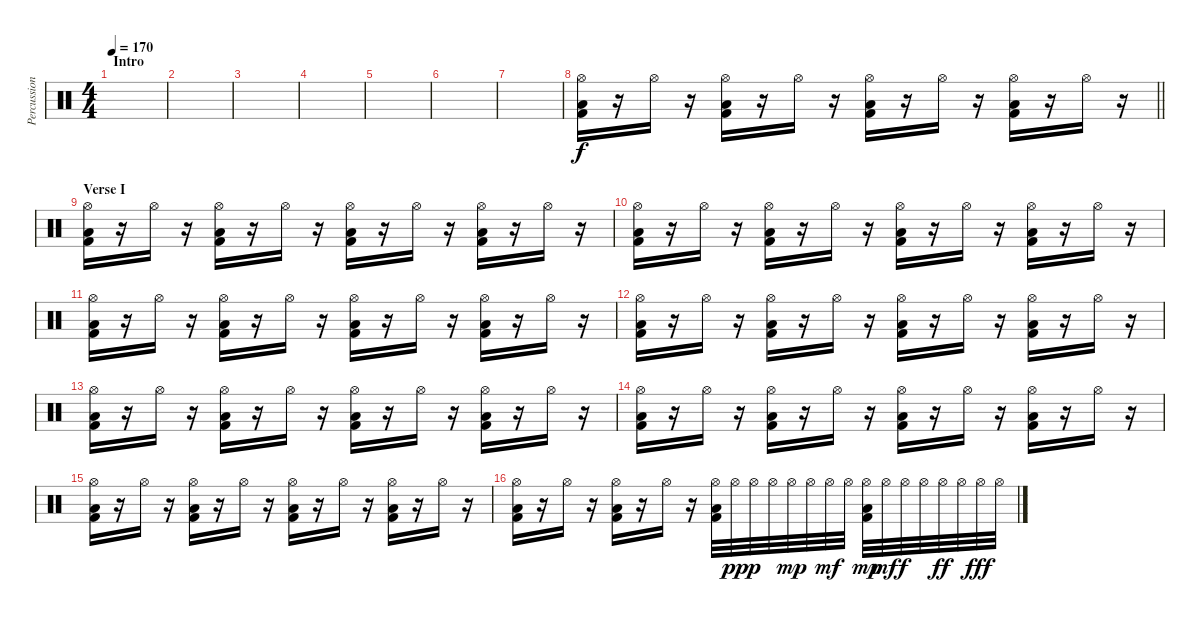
\track ("Percussion" "Percussion") {instrument percussion}
\staff {score}
\articulation defaults
\ts (4 4)
\section ("" "Intro")
\tempo 170
\clef neutral
\ks c
|
|
|
|
|
|
|
\barLineRight lightlight
("Hi-Hat (open)" "Low Floor Tom (hit)" "Kick (hit) 2").16 r.16 "Hi-Hat (open)".16 r.16 ("Hi-Hat (open)" "Low Floor Tom (hit)" "Kick (hit) 2").16 r.16 "Hi-Hat (open)".16 r.16 ("Hi-Hat (open)" "Low Floor Tom (hit)" "Kick (hit) 2").16 r.16 "Hi-Hat (open)".16 r.16 ("Hi-Hat (open)" "Low Floor Tom (hit)" "Kick (hit) 2").16 r.16 "Hi-Hat (open)".16 r.16 |
\section ("" "Verse I")
("Hi-Hat (open)" "Low Floor Tom (hit)" "Kick (hit) 2").16 r.16 "Hi-Hat (open)".16 r.16 ("Hi-Hat (open)" "Low Floor Tom (hit)" "Kick (hit) 2").16 r.16 "Hi-Hat (open)".16 r.16 ("Hi-Hat (open)" "Low Floor Tom (hit)" "Kick (hit) 2").16 r.16 "Hi-Hat (open)".16 r.16 ("Hi-Hat (open)" "Low Floor Tom (hit)" "Kick (hit) 2").16 r.16 "Hi-Hat (open)".16 r.16 |
("Hi-Hat (open)" "Low Floor Tom (hit)" "Kick (hit) 2").16 r.16 "Hi-Hat (open)".16 r.16 ("Hi-Hat (open)" "Low Floor Tom (hit)" "Kick (hit) 2").16 r.16 "Hi-Hat (open)".16 r.16 ("Hi-Hat (open)" "Low Floor Tom (hit)" "Kick (hit) 2").16 r.16 "Hi-Hat (open)".16 r.16 ("Hi-Hat (open)" "Low Floor Tom (hit)" "Kick (hit) 2").16 r.16 "Hi-Hat (open)".16 r.16 |
("Hi-Hat (open)" "Low Floor Tom (hit)" "Kick (hit) 2").16 r.16 "Hi-Hat (open)".16 r.16 ("Hi-Hat (open)" "Low Floor Tom (hit)" "Kick (hit) 2").16 r.16 "Hi-Hat (open)".16 r.16 ("Hi-Hat (open)" "Low Floor Tom (hit)" "Kick (hit) 2").16 r.16 "Hi-Hat (open)".16 r.16 ("Hi-Hat (open)" "Low Floor Tom (hit)" "Kick (hit) 2").16 r.16 "Hi-Hat (open)".16 r.16 |
("Hi-Hat (open)" "Low Floor Tom (hit)" "Kick (hit) 2").16 r.16 "Hi-Hat (open)".16 r.16 ("Hi-Hat (open)" "Low Floor Tom (hit)" "Kick (hit) 2").16 r.16 "Hi-Hat (open)".16 r.16 ("Hi-Hat (open)" "Low Floor Tom (hit)" "Kick (hit) 2").16 r.16 "Hi-Hat (open)".16 r.16 ("Hi-Hat (open)" "Low Floor Tom (hit)" "Kick (hit) 2").16 r.16 "Hi-Hat (open)".16 r.16 |
("Hi-Hat (open)" "Low Floor Tom (hit)" "Kick (hit) 2").16 r.16 "Hi-Hat (open)".16 r.16 ("Hi-Hat (open)" "Low Floor Tom (hit)" "Kick (hit) 2").16 r.16 "Hi-Hat (open)".16 r.16 ("Hi-Hat (open)" "Low Floor Tom (hit)" "Kick (hit) 2").16 r.16 "Hi-Hat (open)".16 r.16 ("Hi-Hat (open)" "Low Floor Tom (hit)" "Kick (hit) 2").16 r.16 "Hi-Hat (open)".16 r.16 |
("Hi-Hat (open)" "Low Floor Tom (hit)" "Kick (hit) 2").16 r.16 "Hi-Hat (open)".16 r.16 ("Hi-Hat (open)" "Low Floor Tom (hit)" "Kick (hit) 2").16 r.16 "Hi-Hat (open)".16 r.16 ("Hi-Hat (open)" "Low Floor Tom (hit)" "Kick (hit) 2").16 r.16 "Hi-Hat (open)".16 r.16 ("Hi-Hat (open)" "Low Floor Tom (hit)" "Kick (hit) 2").16 r.16 "Hi-Hat (open)".16 r.16 |
("Hi-Hat (open)" "Low Floor Tom (hit)" "Kick (hit) 2").16 r.16 "Hi-Hat (open)".16 r.16 ("Hi-Hat (open)" "Low Floor Tom (hit)" "Kick (hit) 2").16 r.16 "Hi-Hat (open)".16 r.16 ("Hi-Hat (open)" "Low Floor Tom (hit)" "Kick (hit) 2").16 r.16 "Hi-Hat (open)".16 r.16 ("Hi-Hat (open)" "Low Floor Tom (hit)" "Kick (hit) 2").16 r.16 "Hi-Hat (open)".16 r.16 |
("Hi-Hat (open)" "Low Floor Tom (hit)" "Kick (hit) 2").16 r.16 "Hi-Hat (open)".16 r.16 ("Hi-Hat (open)" "Low Floor Tom (hit)" "Kick (hit) 2").16 r.16 "Hi-Hat (open)".16 r.16 ("Hi-Hat (open)" "Low Floor Tom (hit)" "Kick (hit) 2").32 "Hi-Hat (open)".32{dy pp} "Hi-Hat (open)".32{dy p} "Hi-Hat (open)".32 "Hi-Hat (open)".32{dy mp} "Hi-Hat (open)".32 "Hi-Hat (open)".32{dy mf} "Hi-Hat (open)".32 ("Hi-Hat (open)" "Low Floor Tom (hit)" "Kick (hit) 2").32{dy mp} "Hi-Hat (open)".32{dy mf} "Hi-Hat (open)".32{dy f} "Hi-Hat (open)".32 "Hi-Hat (open)".32{dy ff} "Hi-Hat (open)".32 "Hi-Hat (open)".32{dy fff} "Hi-Hat (open)".32
